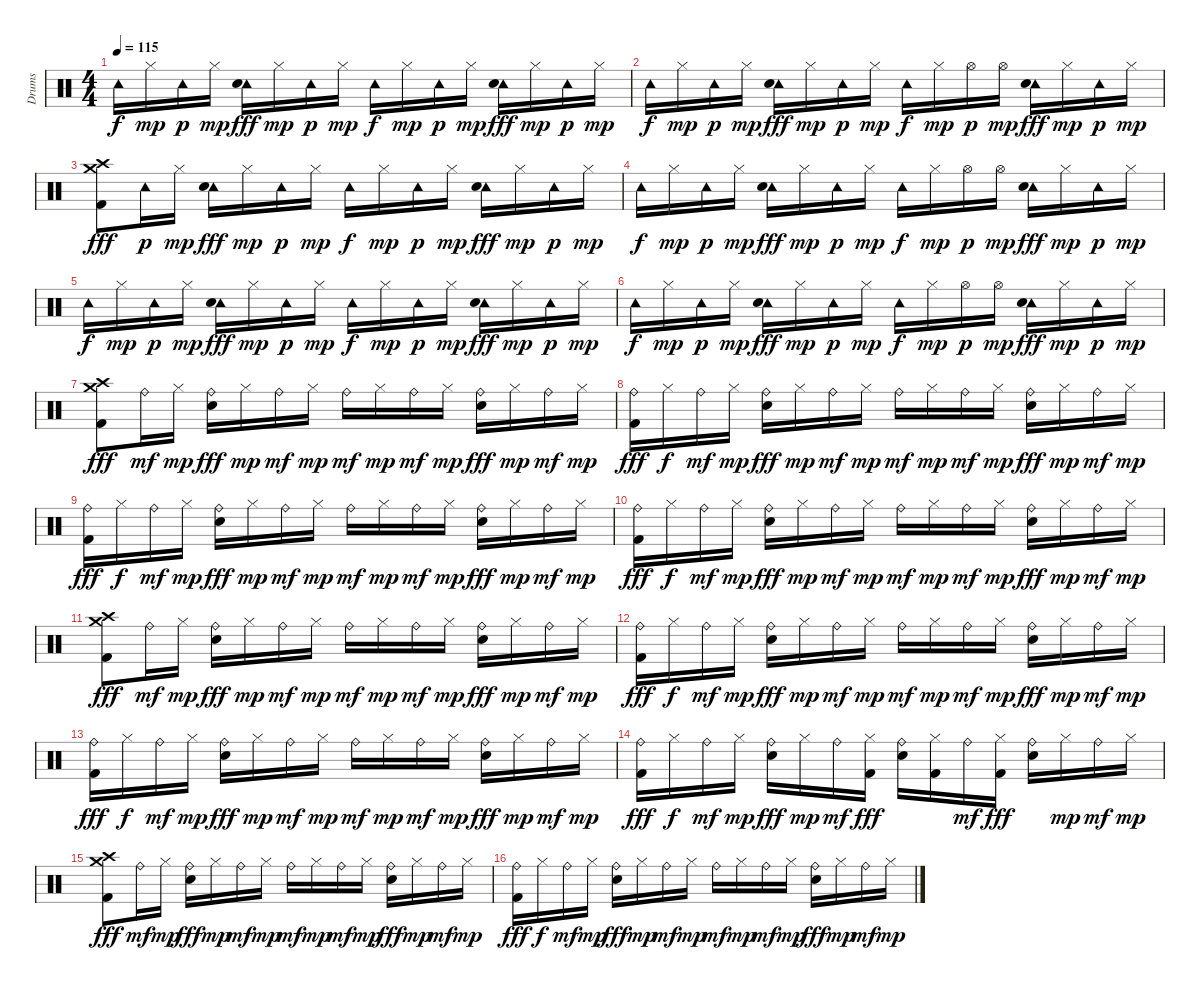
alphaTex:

\track ("Drums" "Drums") {instrument percussion}
\staff {score}
\articulation defaults
\ts (4 4)
\tempo 115
\clef neutral
\ks c "Tambourine (hit)".16{dy f} "Hi-Hat (closed)".16{dy mp} "Tambourine (hit)".16{dy p} "Hi-Hat (closed)".16{dy mp}
("Tambourine (hit)" "Electric Snare (hit)").16{dy fff} "Hi-Hat (closed)".16{dy mp} "Tambourine (hit)".16{dy p} "Hi-Hat (closed)".16{dy mp} "Tambourine (hit)".16{dy f} "Hi-Hat (closed)".16{dy mp} "Tambourine (hit)".16{dy p} "Hi-Hat (closed)".16{dy mp} ("Tambourine (hit)" "Electric Snare (hit)").16{dy fff} "Hi-Hat (closed)".16{dy mp} "Tambourine (hit)".16{dy p} "Hi-Hat (closed)".16{dy mp} |
"Tambourine (hit)".16{dy f} "Hi-Hat (closed)".16{dy mp} "Tambourine (hit)".16{dy p} "Hi-Hat (closed)".16{dy mp} ("Tambourine (hit)" "Electric Snare (hit)").16{dy fff} "Hi-Hat (closed)".16{dy mp} "Tambourine (hit)".16{dy p} "Hi-Hat (closed)".16{dy mp} "Tambourine (hit)".16{dy f} "Hi-Hat (closed)".16{dy mp} "Hi-Hat (open)".16{dy p} "Hi-Hat (open)".16{dy mp} ("Tambourine (hit)" "Electric Snare (hit)").16{dy fff} "Hi-Hat (closed)".16{dy mp} "Tambourine (hit)".16{dy p} "Hi-Hat (closed)".16{dy mp} |
("Crash medium (hit)" "Crash high (hit)" "Kick (hit) 2").8{dy fff} "Tambourine (hit)".16{dy p} "Hi-Hat (closed)".16{dy mp} ("Tambourine (hit)" "Electric Snare (hit)").16{dy fff} "Hi-Hat (closed)".16{dy mp} "Tambourine (hit)".16{dy p} "Hi-Hat (closed)".16{dy mp} "Tambourine (hit)".16{dy f} "Hi-Hat (closed)".16{dy mp} "Tambourine (hit)".16{dy p} "Hi-Hat (closed)".16{dy mp} ("Tambourine (hit)" "Electric Snare (hit)").16{dy fff} "Hi-Hat (closed)".16{dy mp} "Tambourine (hit)".16{dy p} "Hi-Hat (closed)".16{dy mp} |
"Tambourine (hit)".16{dy f} "Hi-Hat (closed)".16{dy mp} "Tambourine (hit)".16{dy p} "Hi-Hat (closed)".16{dy mp} ("Tambourine (hit)" "Electric Snare (hit)").16{dy fff} "Hi-Hat (closed)".16{dy mp} "Tambourine (hit)".16{dy p} "Hi-Hat (closed)".16{dy mp} "Tambourine (hit)".16{dy f} "Hi-Hat (closed)".16{dy mp} "Hi-Hat (open)".16{dy p} "Hi-Hat (open)".16{dy mp} ("Tambourine (hit)" "Electric Snare (hit)").16{dy fff} "Hi-Hat (closed)".16{dy mp} "Tambourine (hit)".16{dy p} "Hi-Hat (closed)".16{dy mp} |
"Tambourine (hit)".16{dy f} "Hi-Hat (closed)".16{dy mp} "Tambourine (hit)".16{dy p} "Hi-Hat (closed)".16{dy mp} ("Tambourine (hit)" "Electric Snare (hit)").16{dy fff} "Hi-Hat (closed)".16{dy mp} "Tambourine (hit)".16{dy p} "Hi-Hat (closed)".16{dy mp} "Tambourine (hit)".16{dy f} "Hi-Hat (closed)".16{dy mp} "Tambourine (hit)".16{dy p} "Hi-Hat (closed)".16{dy mp} ("Tambourine (hit)" "Electric Snare (hit)").16{dy fff} "Hi-Hat (closed)".16{dy mp} "Tambourine (hit)".16{dy p} "Hi-Hat (closed)".16{dy mp} |
"Tambourine (hit)".16{dy f} "Hi-Hat (closed)".16{dy mp} "Tambourine (hit)".16{dy p} "Hi-Hat (closed)".16{dy mp} ("Tambourine (hit)" "Electric Snare (hit)").16{dy fff} "Hi-Hat (closed)".16{dy mp} "Tambourine (hit)".16{dy p} "Hi-Hat (closed)".16{dy mp} "Tambourine (hit)".16{dy f} "Hi-Hat (closed)".16{dy mp} "Hi-Hat (open)".16{dy p} "Hi-Hat (open)".16{dy mp} ("Tambourine (hit)" "Electric Snare (hit)").16{dy fff} "Hi-Hat (closed)".16{dy mp} "Tambourine (hit)".16{dy p} "Hi-Hat (closed)".16{dy mp} |
("Crash medium (hit)" "Crash high (hit)" "Kick (hit) 2").8{dy fff} "Ride (bell)".16{dy mf} "Hi-Hat (closed)".16{dy mp} ("Ride (bell)" "Electric Snare (hit)").16{dy fff} "Hi-Hat (closed)".16{dy mp} "Ride (bell)".16{dy mf} "Hi-Hat (closed)".16{dy mp} "Ride (bell)".16{dy mf} "Hi-Hat (closed)".16{dy mp} "Ride (bell)".16{dy mf} "Hi-Hat (closed)".16{dy mp} ("Ride (bell)" "Electric Snare (hit)").16{dy fff} "Hi-Hat (closed)".16{dy mp} "Ride (bell)".16{dy mf} "Hi-Hat (closed)".16{dy mp} |
("Ride (bell)" "Kick (hit) 2").16{dy fff} "Hi-Hat (closed)".16{dy f} "Ride (bell)".16{dy mf} "Hi-Hat (closed)".16{dy mp} ("Ride (bell)" "Electric Snare (hit)").16{dy fff} "Hi-Hat (closed)".16{dy mp} "Ride (bell)".16{dy mf} "Hi-Hat (closed)".16{dy mp} "Ride (bell)".16{dy mf} "Hi-Hat (closed)".16{dy mp} "Ride (bell)".16{dy mf} "Hi-Hat (closed)".16{dy mp} ("Ride (bell)" "Electric Snare (hit)").16{dy fff} "Hi-Hat (closed)".16{dy mp} "Ride (bell)".16{dy mf} "Hi-Hat (closed)".16{dy mp} |
("Ride (bell)" "Kick (hit) 2").16{dy fff} "Hi-Hat (closed)".16{dy f} "Ride (bell)".16{dy mf} "Hi-Hat (closed)".16{dy mp} ("Ride (bell)" "Electric Snare (hit)").16{dy fff} "Hi-Hat (closed)".16{dy mp} "Ride (bell)".16{dy mf} "Hi-Hat (closed)".16{dy mp} "Ride (bell)".16{dy mf} "Hi-Hat (closed)".16{dy mp} "Ride (bell)".16{dy mf} "Hi-Hat (closed)".16{dy mp} ("Ride (bell)" "Electric Snare (hit)").16{dy fff} "Hi-Hat (closed)".16{dy mp} "Ride (bell)".16{dy mf} "Hi-Hat (closed)".16{dy mp} |
("Ride (bell)" "Kick (hit) 2").16{dy fff} "Hi-Hat (closed)".16{dy f} "Ride (bell)".16{dy mf} "Hi-Hat (closed)".16{dy mp} ("Ride (bell)" "Electric Snare (hit)").16{dy fff} "Hi-Hat (closed)".16{dy mp} "Ride (bell)".16{dy mf} "Hi-Hat (closed)".16{dy mp} "Ride (bell)".16{dy mf} "Hi-Hat (closed)".16{dy mp} "Ride (bell)".16{dy mf} "Hi-Hat (closed)".16{dy mp} ("Ride (bell)" "Electric Snare (hit)").16{dy fff} "Hi-Hat (closed)".16{dy mp} "Ride (bell)".16{dy mf} "Hi-Hat (closed)".16{dy mp} |
("Crash medium (hit)" "Crash high (hit)" "Kick (hit) 2").8{dy fff} "Ride (bell)".16{dy mf} "Hi-Hat (closed)".16{dy mp} ("Ride (bell)" "Electric Snare (hit)").16{dy fff} "Hi-Hat (closed)".16{dy mp} "Ride (bell)".16{dy mf} "Hi-Hat (closed)".16{dy mp} "Ride (bell)".16{dy mf} "Hi-Hat (closed)".16{dy mp} "Ride (bell)".16{dy mf} "Hi-Hat (closed)".16{dy mp} ("Ride (bell)" "Electric Snare (hit)").16{dy fff} "Hi-Hat (closed)".16{dy mp} "Ride (bell)".16{dy mf} "Hi-Hat (closed)".16{dy mp} |
("Ride (bell)" "Kick (hit) 2").16{dy fff} "Hi-Hat (closed)".16{dy f} "Ride (bell)".16{dy mf} "Hi-Hat (closed)".16{dy mp} ("Ride (bell)" "Electric Snare (hit)").16{dy fff} "Hi-Hat (closed)".16{dy mp} "Ride (bell)".16{dy mf} "Hi-Hat (closed)".16{dy mp} "Ride (bell)".16{dy mf} "Hi-Hat (closed)".16{dy mp} "Ride (bell)".16{dy mf} "Hi-Hat (closed)".16{dy mp} ("Ride (bell)" "Electric Snare (hit)").16{dy fff} "Hi-Hat (closed)".16{dy mp} "Ride (bell)".16{dy mf} "Hi-Hat (closed)".16{dy mp} |
("Ride (bell)" "Kick (hit) 2").16{dy fff} "Hi-Hat (closed)".16{dy f} "Ride (bell)".16{dy mf} "Hi-Hat (closed)".16{dy mp} ("Ride (bell)" "Electric Snare (hit)").16{dy fff} "Hi-Hat (closed)".16{dy mp} "Ride (bell)".16{dy mf} "Hi-Hat (closed)".16{dy mp} "Ride (bell)".16{dy mf} "Hi-Hat (closed)".16{dy mp} "Ride (bell)".16{dy mf} "Hi-Hat (closed)".16{dy mp} ("Ride (bell)" "Electric Snare (hit)").16{dy fff} "Hi-Hat (closed)".16{dy mp} "Ride (bell)".16{dy mf} "Hi-Hat (closed)".16{dy mp} |
("Ride (bell)" "Kick (hit) 2").16{dy fff} "Hi-Hat (closed)".16{dy f} "Ride (bell)".16{dy mf} "Hi-Hat (closed)".16{dy mp} ("Ride (bell)" "Electric Snare (hit)").16{dy fff} "Hi-Hat (closed)".16{dy mp} "Ride (bell)".16{dy mf} ("Hi-Hat (closed)" "Kick (hit) 2").16{dy fff} ("Ride (bell)" "Electric Snare (hit)").16 ("Hi-Hat (closed)" "Kick (hit) 2").16 "Ride (bell)".16{dy mf} ("Hi-Hat (closed)" "Kick (hit) 2").16{dy fff} ("Ride (bell)" "Electric Snare (hit)").16 "Hi-Hat (closed)".16{dy mp} "Ride (bell)".16{dy mf} "Hi-Hat (closed)".16{dy mp} |
("Crash medium (hit)" "Crash high (hit)" "Kick (hit) 2").8{dy fff} "Ride (bell)".16{dy mf} "Hi-Hat (closed)".16{dy mp} ("Ride (bell)" "Electric Snare (hit)").16{dy fff} "Hi-Hat (closed)".16{dy mp} "Ride (bell)".16{dy mf} "Hi-Hat (closed)".16{dy mp} "Ride (bell)".16{dy mf} "Hi-Hat (closed)".16{dy mp} "Ride (bell)".16{dy mf} "Hi-Hat (closed)".16{dy mp} ("Ride (bell)" "Electric Snare (hit)").16{dy fff} "Hi-Hat (closed)".16{dy mp} "Ride (bell)".16{dy mf} "Hi-Hat (closed)".16{dy mp} |
("Ride (bell)" "Kick (hit) 2").16{dy fff} "Hi-Hat (closed)".16{dy f} "Ride (bell)".16{dy mf} "Hi-Hat (closed)".16{dy mp} ("Ride (bell)" "Electric Snare (hit)").16{dy fff} "Hi-Hat (closed)".16{dy mp} "Ride (bell)".16{dy mf} "Hi-Hat (closed)".16{dy mp} "Ride (bell)".16{dy mf} "Hi-Hat (closed)".16{dy mp} "Ride (bell)".16{dy mf} "Hi-Hat (closed)".16{dy mp} ("Ride (bell)" "Electric Snare (hit)").16{dy fff} "Hi-Hat (closed)".16{dy mp} "Ride (bell)".16{dy mf} "Hi-Hat (closed)".16{dy mp}
